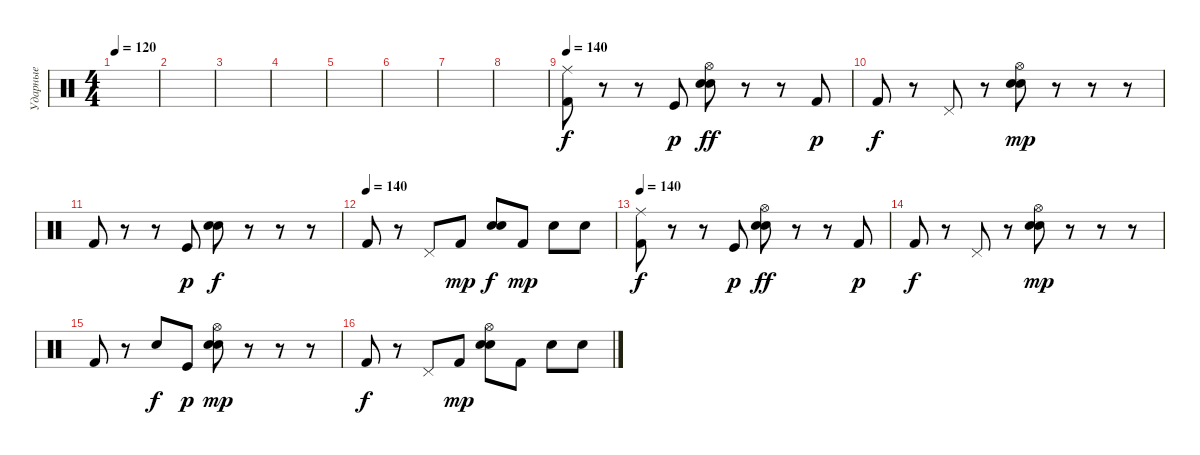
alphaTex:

\track ("Ударные" "Ударные") {instrument percussion}
\staff {score}
\articulation defaults
\ts (4 4)
\tempo 120
\clef neutral
\ks c
|
|
|
|
|
|
|
|
\tempo 100
\tempo 140
("Ride (middle)" "Kick (hit) 2").8 r.8 r.8 "Kick (hit)".8{dy p} ("Hi-Hat (open)" "Snare (hit) 2" "Electric Snare (hit)").8{dy ff} r.8 r.8 "Kick (hit) 2".8{dy p} |
"Kick (hit) 2".8{dy f} r.8 "Pedal Hi-Hat (hit)".8 r.8 ("Hi-Hat (open)" "Snare (hit) 2" "Electric Snare (hit)").8{dy mp} r.8 r.8 r.8 |
"Kick (hit) 2".8 r.8 r.8 "Kick (hit)".8{dy p} ("Snare (hit) 2" "Electric Snare (hit)").8{dy f} r.8 r.8 r.8 |
\tempo (140)
"Kick (hit) 2".8 r.8 "Pedal Hi-Hat (hit)".8 "Kick (hit) 2".8{dy mp} ("Snare (hit) 2" "Electric Snare (hit)").8{dy f} "Kick (hit) 2".8{dy mp} "Snare (hit) 2".8 "Electric Snare (hit)".8 |
\tempo 100
\tempo 140
("Ride (middle)" "Kick (hit) 2").8{dy f} r.8 r.8 "Kick (hit)".8{dy p} ("Hi-Hat (open)" "Snare (hit) 2" "Electric Snare (hit)").8{dy ff} r.8 r.8 "Kick (hit) 2".8{dy p} |
"Kick (hit) 2".8{dy f} r.8 "Pedal Hi-Hat (hit)".8 r.8 ("Hi-Hat (open)" "Snare (hit) 2" "Electric Snare (hit)").8{dy mp} r.8 r.8 r.8 |
"Kick (hit) 2".8 r.8 "Snare (hit)".8{dy f} "Kick (hit)".8{dy p} ("Hi-Hat (open)" "Snare (hit) 2" "Electric Snare (hit)").8{dy mp} r.8 r.8 r.8 |
"Kick (hit) 2".8{dy f} r.8 "Pedal Hi-Hat (hit)".8 "Kick (hit) 2".8{dy mp} ("Hi-Hat (open)" "Snare (hit) 2" "Electric Snare (hit)").8 "Kick (hit) 2".8 "Snare (hit) 2".8 "Electric Snare (hit)".8
